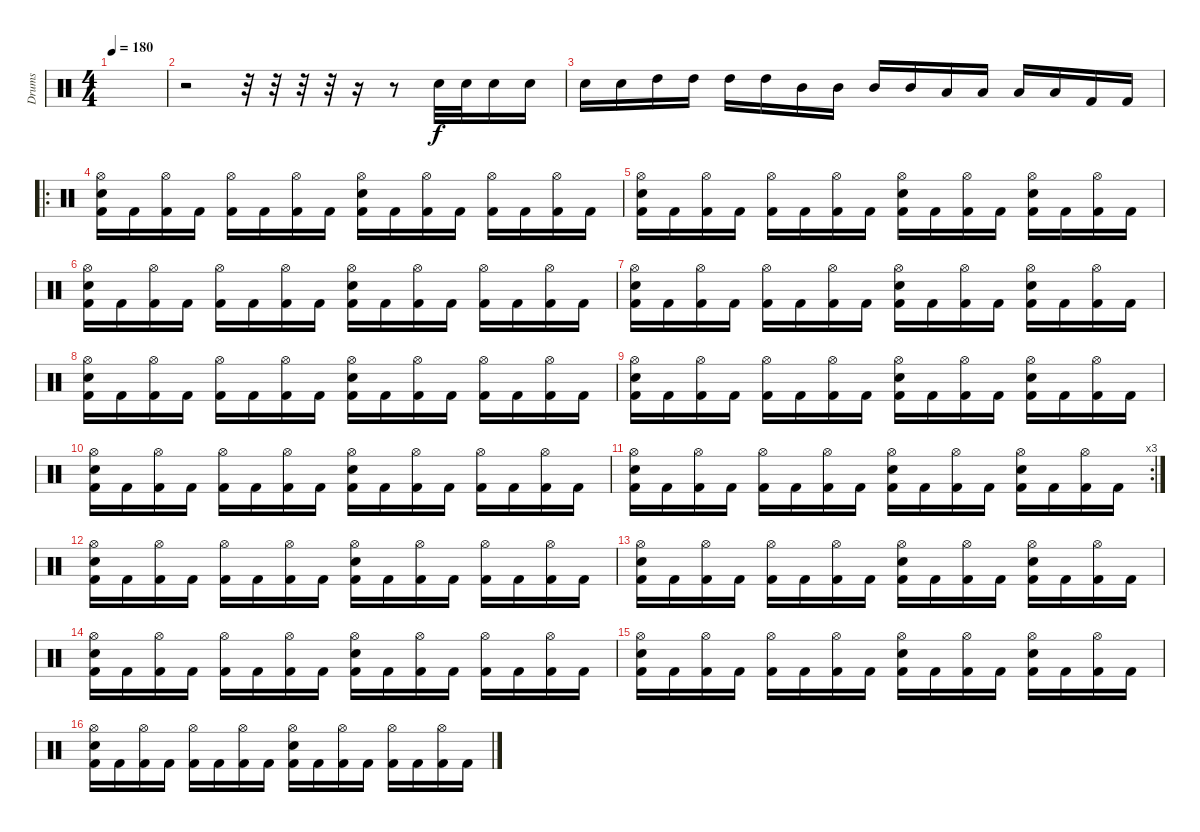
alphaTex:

\track ("Drums" "Drums") {instrument percussion}
\staff {score}
\articulation defaults
\ts (4 4)
\tempo 180
\clef neutral
\ks c
|
r.2 r.32 r.32 r.32 r.32 r.16 r.8 "Electric Snare (hit)".32 "Electric Snare (hit)".32 "Electric Snare (hit)".16 "Electric Snare (hit)".16 |
"Electric Snare (hit)".16 "Electric Snare (hit)".16 "High Tom (hit)".16 "High Tom (hit)".16 "High Tom (hit)".16 "High Tom (hit)".16 "Mid Tom (hit)".16 "Mid Tom (hit)".16 "Mid Tom (hit)".16 "Mid Tom (hit)".16 "Low Tom (hit)".16 "Low Tom (hit)".16 "Low Tom (hit)".16 "Low Tom (hit)".16 "Kick (hit) 2".16 "Kick (hit) 2".16 |
\ro
("Hi-Hat (open)" "Electric Snare (hit)" "Kick (hit) 2").16 "Kick (hit) 2".16 ("Hi-Hat (open)" "Kick (hit) 2").16 "Kick (hit) 2".16 ("Hi-Hat (open)" "Kick (hit) 2").16 "Kick (hit) 2".16 ("Hi-Hat (open)" "Kick (hit) 2").16 "Kick (hit) 2".16 ("Hi-Hat (open)" "Electric Snare (hit)" "Kick (hit) 2").16 "Kick (hit) 2".16 ("Hi-Hat (open)" "Kick (hit) 2").16 "Kick (hit) 2".16 ("Hi-Hat (open)" "Kick (hit) 2").16 "Kick (hit) 2".16 ("Hi-Hat (open)" "Kick (hit) 2").16 "Kick (hit) 2".16 |
("Hi-Hat (open)" "Electric Snare (hit)" "Kick (hit) 2").16 "Kick (hit) 2".16 ("Hi-Hat (open)" "Kick (hit) 2").16 "Kick (hit) 2".16 ("Hi-Hat (open)" "Kick (hit) 2").16 "Kick (hit) 2".16 ("Hi-Hat (open)" "Kick (hit) 2").16 "Kick (hit) 2".16 ("Hi-Hat (open)" "Electric Snare (hit)" "Kick (hit) 2").16 "Kick (hit) 2".16 ("Hi-Hat (open)" "Kick (hit) 2").16 "Kick (hit) 2".16 ("Hi-Hat (open)" "Electric Snare (hit)" "Kick (hit) 2").16 "Kick (hit) 2".16 ("Hi-Hat (open)" "Kick (hit) 2").16 "Kick (hit) 2".16 |
("Hi-Hat (open)" "Electric Snare (hit)" "Kick (hit) 2").16 "Kick (hit) 2".16 ("Hi-Hat (open)" "Kick (hit) 2").16 "Kick (hit) 2".16 ("Hi-Hat (open)" "Kick (hit) 2").16 "Kick (hit) 2".16 ("Hi-Hat (open)" "Kick (hit) 2").16 "Kick (hit) 2".16 ("Hi-Hat (open)" "Electric Snare (hit)" "Kick (hit) 2").16 "Kick (hit) 2".16 ("Hi-Hat (open)" "Kick (hit) 2").16 "Kick (hit) 2".16 ("Hi-Hat (open)" "Kick (hit) 2").16 "Kick (hit) 2".16 ("Hi-Hat (open)" "Kick (hit) 2").16 "Kick (hit) 2".16 |
("Hi-Hat (open)" "Electric Snare (hit)" "Kick (hit) 2").16 "Kick (hit) 2".16 ("Hi-Hat (open)" "Kick (hit) 2").16 "Kick (hit) 2".16 ("Hi-Hat (open)" "Kick (hit) 2").16 "Kick (hit) 2".16 ("Hi-Hat (open)" "Kick (hit) 2").16 "Kick (hit) 2".16 ("Hi-Hat (open)" "Electric Snare (hit)" "Kick (hit) 2").16 "Kick (hit) 2".16 ("Hi-Hat (open)" "Kick (hit) 2").16 "Kick (hit) 2".16 ("Hi-Hat (open)" "Electric Snare (hit)" "Kick (hit) 2").16 "Kick (hit) 2".16 ("Hi-Hat (open)" "Kick (hit) 2").16 "Kick (hit) 2".16 |
("Hi-Hat (open)" "Electric Snare (hit)" "Kick (hit) 2").16 "Kick (hit) 2".16 ("Hi-Hat (open)" "Kick (hit) 2").16 "Kick (hit) 2".16 ("Hi-Hat (open)" "Kick (hit) 2").16 "Kick (hit) 2".16 ("Hi-Hat (open)" "Kick (hit) 2").16 "Kick (hit) 2".16 ("Hi-Hat (open)" "Electric Snare (hit)" "Kick (hit) 2").16 "Kick (hit) 2".16 ("Hi-Hat (open)" "Kick (hit) 2").16 "Kick (hit) 2".16 ("Hi-Hat (open)" "Kick (hit) 2").16 "Kick (hit) 2".16 ("Hi-Hat (open)" "Kick (hit) 2").16 "Kick (hit) 2".16 |
("Hi-Hat (open)" "Electric Snare (hit)" "Kick (hit) 2").16 "Kick (hit) 2".16 ("Hi-Hat (open)" "Kick (hit) 2").16 "Kick (hit) 2".16 ("Hi-Hat (open)" "Kick (hit) 2").16 "Kick (hit) 2".16 ("Hi-Hat (open)" "Kick (hit) 2").16 "Kick (hit) 2".16 ("Hi-Hat (open)" "Electric Snare (hit)" "Kick (hit) 2").16 "Kick (hit) 2".16 ("Hi-Hat (open)" "Kick (hit) 2").16 "Kick (hit) 2".16 ("Hi-Hat (open)" "Electric Snare (hit)" "Kick (hit) 2").16 "Kick (hit) 2".16 ("Hi-Hat (open)" "Kick (hit) 2").16 "Kick (hit) 2".16 |
("Hi-Hat (open)" "Electric Snare (hit)" "Kick (hit) 2").16 "Kick (hit) 2".16 ("Hi-Hat (open)" "Kick (hit) 2").16 "Kick (hit) 2".16 ("Hi-Hat (open)" "Kick (hit) 2").16 "Kick (hit) 2".16 ("Hi-Hat (open)" "Kick (hit) 2").16 "Kick (hit) 2".16 ("Hi-Hat (open)" "Electric Snare (hit)" "Kick (hit) 2").16 "Kick (hit) 2".16 ("Hi-Hat (open)" "Kick (hit) 2").16 "Kick (hit) 2".16 ("Hi-Hat (open)" "Kick (hit) 2").16 "Kick (hit) 2".16 ("Hi-Hat (open)" "Kick (hit) 2").16 "Kick (hit) 2".16 |
\rc 3
("Hi-Hat (open)" "Electric Snare (hit)" "Kick (hit) 2").16 "Kick (hit) 2".16 ("Hi-Hat (open)" "Kick (hit) 2").16 "Kick (hit) 2".16 ("Hi-Hat (open)" "Kick (hit) 2").16 "Kick (hit) 2".16 ("Hi-Hat (open)" "Kick (hit) 2").16 "Kick (hit) 2".16 ("Hi-Hat (open)" "Electric Snare (hit)" "Kick (hit) 2").16 "Kick (hit) 2".16 ("Hi-Hat (open)" "Kick (hit) 2").16 "Kick (hit) 2".16 ("Hi-Hat (open)" "Electric Snare (hit)" "Kick (hit) 2").16 "Kick (hit) 2".16 ("Hi-Hat (open)" "Kick (hit) 2").16 "Kick (hit) 2".16 |
("Hi-Hat (open)" "Electric Snare (hit)" "Kick (hit) 2").16 "Kick (hit) 2".16 ("Hi-Hat (open)" "Kick (hit) 2").16 "Kick (hit) 2".16 ("Hi-Hat (open)" "Kick (hit) 2").16 "Kick (hit) 2".16 ("Hi-Hat (open)" "Kick (hit) 2").16 "Kick (hit) 2".16 ("Hi-Hat (open)" "Electric Snare (hit)" "Kick (hit) 2").16 "Kick (hit) 2".16 ("Hi-Hat (open)" "Kick (hit) 2").16 "Kick (hit) 2".16 ("Hi-Hat (open)" "Kick (hit) 2").16 "Kick (hit) 2".16 ("Hi-Hat (open)" "Kick (hit) 2").16 "Kick (hit) 2".16 |
("Hi-Hat (open)" "Electric Snare (hit)" "Kick (hit) 2").16 "Kick (hit) 2".16 ("Hi-Hat (open)" "Kick (hit) 2").16 "Kick (hit) 2".16 ("Hi-Hat (open)" "Kick (hit) 2").16 "Kick (hit) 2".16 ("Hi-Hat (open)" "Kick (hit) 2").16 "Kick (hit) 2".16 ("Hi-Hat (open)" "Electric Snare (hit)" "Kick (hit) 2").16 "Kick (hit) 2".16 ("Hi-Hat (open)" "Kick (hit) 2").16 "Kick (hit) 2".16 ("Hi-Hat (open)" "Electric Snare (hit)" "Kick (hit) 2").16 "Kick (hit) 2".16 ("Hi-Hat (open)" "Kick (hit) 2").16 "Kick (hit) 2".16 |
("Hi-Hat (open)" "Electric Snare (hit)" "Kick (hit) 2").16 "Kick (hit) 2".16 ("Hi-Hat (open)" "Kick (hit) 2").16 "Kick (hit) 2".16 ("Hi-Hat (open)" "Kick (hit) 2").16 "Kick (hit) 2".16 ("Hi-Hat (open)" "Kick (hit) 2").16 "Kick (hit) 2".16 ("Hi-Hat (open)" "Electric Snare (hit)" "Kick (hit) 2").16 "Kick (hit) 2".16 ("Hi-Hat (open)" "Kick (hit) 2").16 "Kick (hit) 2".16 ("Hi-Hat (open)" "Kick (hit) 2").16 "Kick (hit) 2".16 ("Hi-Hat (open)" "Kick (hit) 2").16 "Kick (hit) 2".16 |
("Hi-Hat (open)" "Electric Snare (hit)" "Kick (hit) 2").16 "Kick (hit) 2".16 ("Hi-Hat (open)" "Kick (hit) 2").16 "Kick (hit) 2".16 ("Hi-Hat (open)" "Kick (hit) 2").16 "Kick (hit) 2".16 ("Hi-Hat (open)" "Kick (hit) 2").16 "Kick (hit) 2".16 ("Hi-Hat (open)" "Electric Snare (hit)" "Kick (hit) 2").16 "Kick (hit) 2".16 ("Hi-Hat (open)" "Kick (hit) 2").16 "Kick (hit) 2".16 ("Hi-Hat (open)" "Electric Snare (hit)" "Kick (hit) 2").16 "Kick (hit) 2".16 ("Hi-Hat (open)" "Kick (hit) 2").16 "Kick (hit) 2".16 |
("Hi-Hat (open)" "Electric Snare (hit)" "Kick (hit) 2").16 "Kick (hit) 2".16 ("Hi-Hat (open)" "Kick (hit) 2").16 "Kick (hit) 2".16 ("Hi-Hat (open)" "Kick (hit) 2").16 "Kick (hit) 2".16 ("Hi-Hat (open)" "Kick (hit) 2").16 "Kick (hit) 2".16 ("Hi-Hat (open)" "Electric Snare (hit)" "Kick (hit) 2").16 "Kick (hit) 2".16 ("Hi-Hat (open)" "Kick (hit) 2").16 "Kick (hit) 2".16 ("Hi-Hat (open)" "Kick (hit) 2").16 "Kick (hit) 2".16 ("Hi-Hat (open)" "Kick (hit) 2").16 "Kick (hit) 2".16
